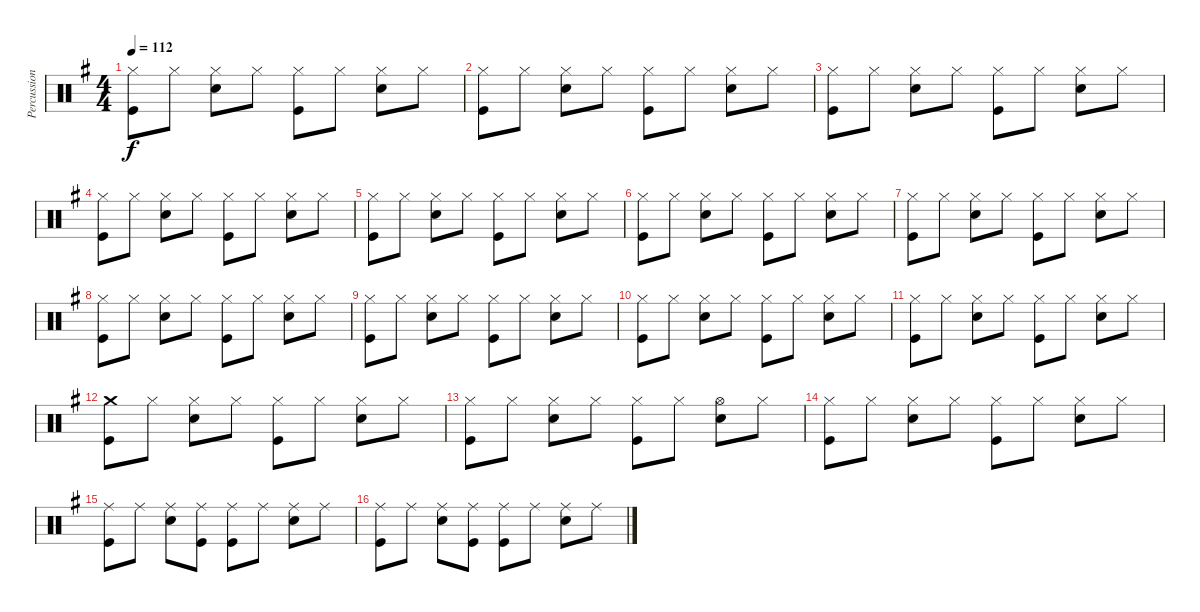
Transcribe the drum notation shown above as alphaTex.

\track ("Percussion" "Percussion") {instrument percussion}
\staff {score}
\articulation defaults
\ts (4 4)
\tempo 112
\clef neutral
\ks g
("Hi-Hat (closed)" "Kick (hit)").8{dy f} "Hi-Hat (closed)".8 ("Hi-Hat (closed)" "Snare (hit) 2").8 "Hi-Hat (closed)".8 ("Hi-Hat (closed)" "Kick (hit)").8 "Hi-Hat (closed)".8 ("Hi-Hat (closed)" "Snare (hit) 2").8 "Hi-Hat (closed)".8 |
("Hi-Hat (closed)" "Kick (hit)").8 "Hi-Hat (closed)".8 ("Hi-Hat (closed)" "Snare (hit) 2").8 "Hi-Hat (closed)".8 ("Hi-Hat (closed)" "Kick (hit)").8 "Hi-Hat (closed)".8 ("Hi-Hat (closed)" "Snare (hit) 2").8 "Hi-Hat (closed)".8 |
("Hi-Hat (closed)" "Kick (hit)").8 "Hi-Hat (closed)".8 ("Hi-Hat (closed)" "Snare (hit) 2").8 "Hi-Hat (closed)".8 ("Hi-Hat (closed)" "Kick (hit)").8 "Hi-Hat (closed)".8 ("Hi-Hat (closed)" "Snare (hit) 2").8 "Hi-Hat (closed)".8 |
("Hi-Hat (closed)" "Kick (hit)").8 "Hi-Hat (closed)".8 ("Hi-Hat (closed)" "Snare (hit) 2").8 "Hi-Hat (closed)".8 ("Hi-Hat (closed)" "Kick (hit)").8 "Hi-Hat (closed)".8 ("Hi-Hat (closed)" "Snare (hit) 2").8 "Hi-Hat (closed)".8 |
("Hi-Hat (closed)" "Kick (hit)").8 "Hi-Hat (closed)".8 ("Hi-Hat (closed)" "Snare (hit) 2").8 "Hi-Hat (closed)".8 ("Hi-Hat (closed)" "Kick (hit)").8 "Hi-Hat (closed)".8 ("Hi-Hat (closed)" "Snare (hit) 2").8 "Hi-Hat (closed)".8 |
("Hi-Hat (closed)" "Kick (hit)").8 "Hi-Hat (closed)".8 ("Hi-Hat (closed)" "Snare (hit) 2").8 "Hi-Hat (closed)".8 ("Hi-Hat (closed)" "Kick (hit)").8 "Hi-Hat (closed)".8 ("Hi-Hat (closed)" "Snare (hit) 2").8 "Hi-Hat (closed)".8 |
("Hi-Hat (closed)" "Kick (hit)").8 "Hi-Hat (closed)".8 ("Hi-Hat (closed)" "Snare (hit) 2").8 "Hi-Hat (closed)".8 ("Hi-Hat (closed)" "Kick (hit)").8 "Hi-Hat (closed)".8 ("Hi-Hat (closed)" "Snare (hit) 2").8 "Hi-Hat (closed)".8 |
("Hi-Hat (closed)" "Kick (hit)").8 "Hi-Hat (closed)".8 ("Hi-Hat (closed)" "Snare (hit) 2").8 "Hi-Hat (closed)".8 ("Hi-Hat (closed)" "Kick (hit)").8 "Hi-Hat (closed)".8 ("Hi-Hat (closed)" "Snare (hit) 2").8 "Hi-Hat (closed)".8 |
("Hi-Hat (closed)" "Kick (hit)").8 "Hi-Hat (closed)".8 ("Hi-Hat (closed)" "Snare (hit) 2").8 "Hi-Hat (closed)".8 ("Hi-Hat (closed)" "Kick (hit)").8 "Hi-Hat (closed)".8 ("Hi-Hat (closed)" "Snare (hit) 2").8 "Hi-Hat (closed)".8 |
("Hi-Hat (closed)" "Kick (hit)").8 "Hi-Hat (closed)".8 ("Hi-Hat (closed)" "Snare (hit) 2").8 "Hi-Hat (closed)".8 ("Hi-Hat (closed)" "Kick (hit)").8 "Hi-Hat (closed)".8 ("Hi-Hat (closed)" "Snare (hit) 2").8 "Hi-Hat (closed)".8 |
("Hi-Hat (closed)" "Kick (hit)").8 "Hi-Hat (closed)".8 ("Hi-Hat (closed)" "Snare (hit) 2").8 "Hi-Hat (closed)".8 ("Hi-Hat (closed)" "Kick (hit)").8 "Hi-Hat (closed)".8 ("Hi-Hat (closed)" "Snare (hit) 2").8 "Hi-Hat (closed)".8 |
("Crash medium (hit)" "Kick (hit)").8 "Hi-Hat (closed)".8 ("Hi-Hat (closed)" "Snare (hit) 2").8 "Hi-Hat (closed)".8 ("Hi-Hat (closed)" "Kick (hit)").8 "Hi-Hat (closed)".8 ("Hi-Hat (closed)" "Snare (hit) 2").8 "Hi-Hat (closed)".8 |
("Hi-Hat (closed)" "Kick (hit)").8 "Hi-Hat (closed)".8 ("Hi-Hat (closed)" "Snare (hit) 2").8 "Hi-Hat (closed)".8 ("Hi-Hat (closed)" "Kick (hit)").8 "Hi-Hat (closed)".8 ("Hi-Hat (open)" "Snare (hit) 2").8 "Hi-Hat (closed)".8 |
("Hi-Hat (closed)" "Kick (hit)").8 "Hi-Hat (closed)".8 ("Hi-Hat (closed)" "Snare (hit) 2").8 "Hi-Hat (closed)".8 ("Hi-Hat (closed)" "Kick (hit)").8 "Hi-Hat (closed)".8 ("Hi-Hat (closed)" "Snare (hit) 2").8 "Hi-Hat (closed)".8 |
("Ride (middle)" "Kick (hit)").8 "Ride (middle)".8 ("Ride (middle)" "Snare (hit) 2").8 ("Ride (middle)" "Kick (hit)").8 ("Ride (middle)" "Kick (hit)").8 "Ride (middle)".8 ("Ride (middle)" "Snare (hit) 2").8 "Ride (middle)".8 |
("Ride (middle)" "Kick (hit)").8 "Ride (middle)".8 ("Ride (middle)" "Snare (hit) 2").8 ("Ride (middle)" "Kick (hit)").8 ("Ride (middle)" "Kick (hit)").8 "Ride (middle)".8 ("Ride (middle)" "Snare (hit) 2").8 "Ride (middle)".8
